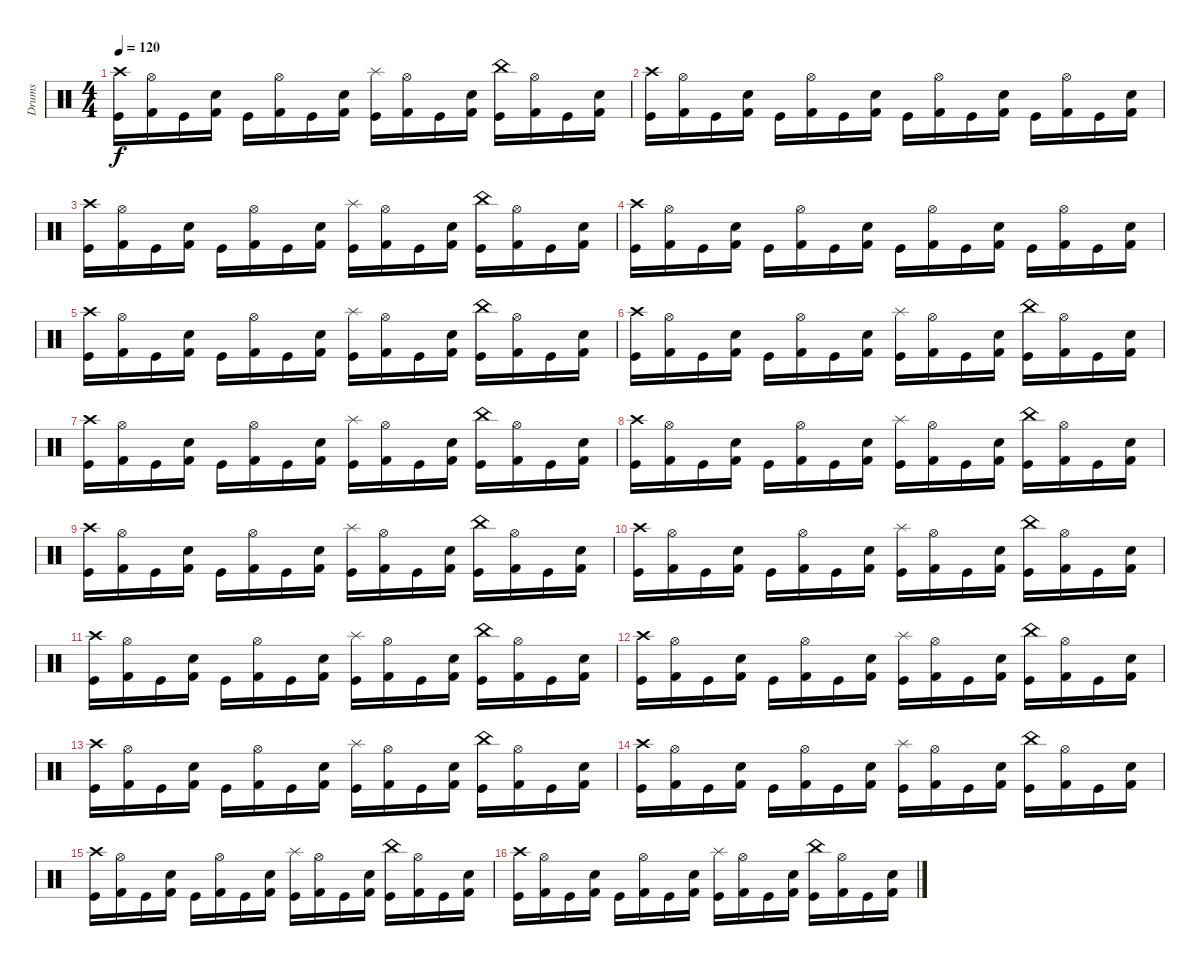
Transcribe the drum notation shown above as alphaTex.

\track ("Drums" "Drums") {instrument percussion}
\staff {score}
\articulation defaults
\ts (4 4)
\tempo 120
\clef neutral
\ks c
("Crash high (hit)" "Kick (hit)").16{dy f} ("Hi-Hat (open)" "Kick (hit) 2").16 "Kick (hit)".16 ("Electric Snare (hit)" "Kick (hit) 2").16 "Kick (hit)".16 ("Hi-Hat (open)" "Kick (hit) 2").16 "Kick (hit)".16 ("Electric Snare (hit)" "Kick (hit) 2").16 ("Splash (hit)" "Kick (hit)").16 ("Hi-Hat (open)" "Kick (hit) 2").16 "Kick (hit)".16 ("Electric Snare (hit)" "Kick (hit) 2").16 ("China (hit)" "Kick (hit)").16 ("Hi-Hat (open)" "Kick (hit) 2").16 "Kick (hit)".16 ("Electric Snare (hit)" "Kick (hit) 2").16 |
("Crash high (hit)" "Kick (hit)").16 ("Hi-Hat (open)" "Kick (hit) 2").16 "Kick (hit)".16 ("Electric Snare (hit)" "Kick (hit) 2").16 "Kick (hit)".16 ("Hi-Hat (open)" "Kick (hit) 2").16 "Kick (hit)".16 ("Electric Snare (hit)" "Kick (hit) 2").16 "Kick (hit)".16 ("Hi-Hat (open)" "Kick (hit) 2").16 "Kick (hit)".16 ("Electric Snare (hit)" "Kick (hit) 2").16 "Kick (hit)".16 ("Hi-Hat (open)" "Kick (hit) 2").16 "Kick (hit)".16 ("Electric Snare (hit)" "Kick (hit) 2").16 |
("Crash high (hit)" "Kick (hit)").16 ("Hi-Hat (open)" "Kick (hit) 2").16 "Kick (hit)".16 ("Electric Snare (hit)" "Kick (hit) 2").16 "Kick (hit)".16 ("Hi-Hat (open)" "Kick (hit) 2").16 "Kick (hit)".16 ("Electric Snare (hit)" "Kick (hit) 2").16 ("Splash (hit)" "Kick (hit)").16 ("Hi-Hat (open)" "Kick (hit) 2").16 "Kick (hit)".16 ("Electric Snare (hit)" "Kick (hit) 2").16 ("China (hit)" "Kick (hit)").16 ("Hi-Hat (open)" "Kick (hit) 2").16 "Kick (hit)".16 ("Electric Snare (hit)" "Kick (hit) 2").16 |
("Crash high (hit)" "Kick (hit)").16 ("Hi-Hat (open)" "Kick (hit) 2").16 "Kick (hit)".16 ("Electric Snare (hit)" "Kick (hit) 2").16 "Kick (hit)".16 ("Hi-Hat (open)" "Kick (hit) 2").16 "Kick (hit)".16 ("Electric Snare (hit)" "Kick (hit) 2").16 "Kick (hit)".16 ("Hi-Hat (open)" "Kick (hit) 2").16 "Kick (hit)".16 ("Electric Snare (hit)" "Kick (hit) 2").16 "Kick (hit)".16 ("Hi-Hat (open)" "Kick (hit) 2").16 "Kick (hit)".16 ("Electric Snare (hit)" "Kick (hit) 2").16 |
("Crash high (hit)" "Kick (hit)").16 ("Hi-Hat (open)" "Kick (hit) 2").16 "Kick (hit)".16 ("Electric Snare (hit)" "Kick (hit) 2").16 "Kick (hit)".16 ("Hi-Hat (open)" "Kick (hit) 2").16 "Kick (hit)".16 ("Electric Snare (hit)" "Kick (hit) 2").16 ("Splash (hit)" "Kick (hit)").16 ("Hi-Hat (open)" "Kick (hit) 2").16 "Kick (hit)".16 ("Electric Snare (hit)" "Kick (hit) 2").16 ("China (hit)" "Kick (hit)").16 ("Hi-Hat (open)" "Kick (hit) 2").16 "Kick (hit)".16 ("Electric Snare (hit)" "Kick (hit) 2").16 |
("Crash high (hit)" "Kick (hit)").16 ("Hi-Hat (open)" "Kick (hit) 2").16 "Kick (hit)".16 ("Electric Snare (hit)" "Kick (hit) 2").16 "Kick (hit)".16 ("Hi-Hat (open)" "Kick (hit) 2").16 "Kick (hit)".16 ("Electric Snare (hit)" "Kick (hit) 2").16 ("Splash (hit)" "Kick (hit)").16 ("Hi-Hat (open)" "Kick (hit) 2").16 "Kick (hit)".16 ("Electric Snare (hit)" "Kick (hit) 2").16 ("China (hit)" "Kick (hit)").16 ("Hi-Hat (open)" "Kick (hit) 2").16 "Kick (hit)".16 ("Electric Snare (hit)" "Kick (hit) 2").16 |
("Crash high (hit)" "Kick (hit)").16 ("Hi-Hat (open)" "Kick (hit) 2").16 "Kick (hit)".16 ("Electric Snare (hit)" "Kick (hit) 2").16 "Kick (hit)".16 ("Hi-Hat (open)" "Kick (hit) 2").16 "Kick (hit)".16 ("Electric Snare (hit)" "Kick (hit) 2").16 ("Splash (hit)" "Kick (hit)").16 ("Hi-Hat (open)" "Kick (hit) 2").16 "Kick (hit)".16 ("Electric Snare (hit)" "Kick (hit) 2").16 ("China (hit)" "Kick (hit)").16 ("Hi-Hat (open)" "Kick (hit) 2").16 "Kick (hit)".16 ("Electric Snare (hit)" "Kick (hit) 2").16 |
("Crash high (hit)" "Kick (hit)").16 ("Hi-Hat (open)" "Kick (hit) 2").16 "Kick (hit)".16 ("Electric Snare (hit)" "Kick (hit) 2").16 "Kick (hit)".16 ("Hi-Hat (open)" "Kick (hit) 2").16 "Kick (hit)".16 ("Electric Snare (hit)" "Kick (hit) 2").16 ("Splash (hit)" "Kick (hit)").16 ("Hi-Hat (open)" "Kick (hit) 2").16 "Kick (hit)".16 ("Electric Snare (hit)" "Kick (hit) 2").16 ("China (hit)" "Kick (hit)").16 ("Hi-Hat (open)" "Kick (hit) 2").16 "Kick (hit)".16 ("Electric Snare (hit)" "Kick (hit) 2").16 |
("Crash high (hit)" "Kick (hit)").16 ("Hi-Hat (open)" "Kick (hit) 2").16 "Kick (hit)".16 ("Electric Snare (hit)" "Kick (hit) 2").16 "Kick (hit)".16 ("Hi-Hat (open)" "Kick (hit) 2").16 "Kick (hit)".16 ("Electric Snare (hit)" "Kick (hit) 2").16 ("Splash (hit)" "Kick (hit)").16 ("Hi-Hat (open)" "Kick (hit) 2").16 "Kick (hit)".16 ("Electric Snare (hit)" "Kick (hit) 2").16 ("China (hit)" "Kick (hit)").16 ("Hi-Hat (open)" "Kick (hit) 2").16 "Kick (hit)".16 ("Electric Snare (hit)" "Kick (hit) 2").16 |
("Crash high (hit)" "Kick (hit)").16 ("Hi-Hat (open)" "Kick (hit) 2").16 "Kick (hit)".16 ("Electric Snare (hit)" "Kick (hit) 2").16 "Kick (hit)".16 ("Hi-Hat (open)" "Kick (hit) 2").16 "Kick (hit)".16 ("Electric Snare (hit)" "Kick (hit) 2").16 ("Splash (hit)" "Kick (hit)").16 ("Hi-Hat (open)" "Kick (hit) 2").16 "Kick (hit)".16 ("Electric Snare (hit)" "Kick (hit) 2").16 ("China (hit)" "Kick (hit)").16 ("Hi-Hat (open)" "Kick (hit) 2").16 "Kick (hit)".16 ("Electric Snare (hit)" "Kick (hit) 2").16 |
("Crash high (hit)" "Kick (hit)").16 ("Hi-Hat (open)" "Kick (hit) 2").16 "Kick (hit)".16 ("Electric Snare (hit)" "Kick (hit) 2").16 "Kick (hit)".16 ("Hi-Hat (open)" "Kick (hit) 2").16 "Kick (hit)".16 ("Electric Snare (hit)" "Kick (hit) 2").16 ("Splash (hit)" "Kick (hit)").16 ("Hi-Hat (open)" "Kick (hit) 2").16 "Kick (hit)".16 ("Electric Snare (hit)" "Kick (hit) 2").16 ("China (hit)" "Kick (hit)").16 ("Hi-Hat (open)" "Kick (hit) 2").16 "Kick (hit)".16 ("Electric Snare (hit)" "Kick (hit) 2").16 |
("Crash high (hit)" "Kick (hit)").16 ("Hi-Hat (open)" "Kick (hit) 2").16 "Kick (hit)".16 ("Electric Snare (hit)" "Kick (hit) 2").16 "Kick (hit)".16 ("Hi-Hat (open)" "Kick (hit) 2").16 "Kick (hit)".16 ("Electric Snare (hit)" "Kick (hit) 2").16 ("Splash (hit)" "Kick (hit)").16 ("Hi-Hat (open)" "Kick (hit) 2").16 "Kick (hit)".16 ("Electric Snare (hit)" "Kick (hit) 2").16 ("China (hit)" "Kick (hit)").16 ("Hi-Hat (open)" "Kick (hit) 2").16 "Kick (hit)".16 ("Electric Snare (hit)" "Kick (hit) 2").16 |
("Crash high (hit)" "Kick (hit)").16 ("Hi-Hat (open)" "Kick (hit) 2").16 "Kick (hit)".16 ("Electric Snare (hit)" "Kick (hit) 2").16 "Kick (hit)".16 ("Hi-Hat (open)" "Kick (hit) 2").16 "Kick (hit)".16 ("Electric Snare (hit)" "Kick (hit) 2").16 ("Splash (hit)" "Kick (hit)").16 ("Hi-Hat (open)" "Kick (hit) 2").16 "Kick (hit)".16 ("Electric Snare (hit)" "Kick (hit) 2").16 ("China (hit)" "Kick (hit)").16 ("Hi-Hat (open)" "Kick (hit) 2").16 "Kick (hit)".16 ("Electric Snare (hit)" "Kick (hit) 2").16 |
("Crash high (hit)" "Kick (hit)").16 ("Hi-Hat (open)" "Kick (hit) 2").16 "Kick (hit)".16 ("Electric Snare (hit)" "Kick (hit) 2").16 "Kick (hit)".16 ("Hi-Hat (open)" "Kick (hit) 2").16 "Kick (hit)".16 ("Electric Snare (hit)" "Kick (hit) 2").16 ("Splash (hit)" "Kick (hit)").16 ("Hi-Hat (open)" "Kick (hit) 2").16 "Kick (hit)".16 ("Electric Snare (hit)" "Kick (hit) 2").16 ("China (hit)" "Kick (hit)").16 ("Hi-Hat (open)" "Kick (hit) 2").16 "Kick (hit)".16 ("Electric Snare (hit)" "Kick (hit) 2").16 |
("Crash high (hit)" "Kick (hit)").16 ("Hi-Hat (open)" "Kick (hit) 2").16 "Kick (hit)".16 ("Electric Snare (hit)" "Kick (hit) 2").16 "Kick (hit)".16 ("Hi-Hat (open)" "Kick (hit) 2").16 "Kick (hit)".16 ("Electric Snare (hit)" "Kick (hit) 2").16 ("Splash (hit)" "Kick (hit)").16 ("Hi-Hat (open)" "Kick (hit) 2").16 "Kick (hit)".16 ("Electric Snare (hit)" "Kick (hit) 2").16 ("China (hit)" "Kick (hit)").16 ("Hi-Hat (open)" "Kick (hit) 2").16 "Kick (hit)".16 ("Electric Snare (hit)" "Kick (hit) 2").16 |
("Crash high (hit)" "Kick (hit)").16 ("Hi-Hat (open)" "Kick (hit) 2").16 "Kick (hit)".16 ("Electric Snare (hit)" "Kick (hit) 2").16 "Kick (hit)".16 ("Hi-Hat (open)" "Kick (hit) 2").16 "Kick (hit)".16 ("Electric Snare (hit)" "Kick (hit) 2").16 ("Splash (hit)" "Kick (hit)").16 ("Hi-Hat (open)" "Kick (hit) 2").16 "Kick (hit)".16 ("Electric Snare (hit)" "Kick (hit) 2").16 ("China (hit)" "Kick (hit)").16 ("Hi-Hat (open)" "Kick (hit) 2").16 "Kick (hit)".16 ("Electric Snare (hit)" "Kick (hit) 2").16
